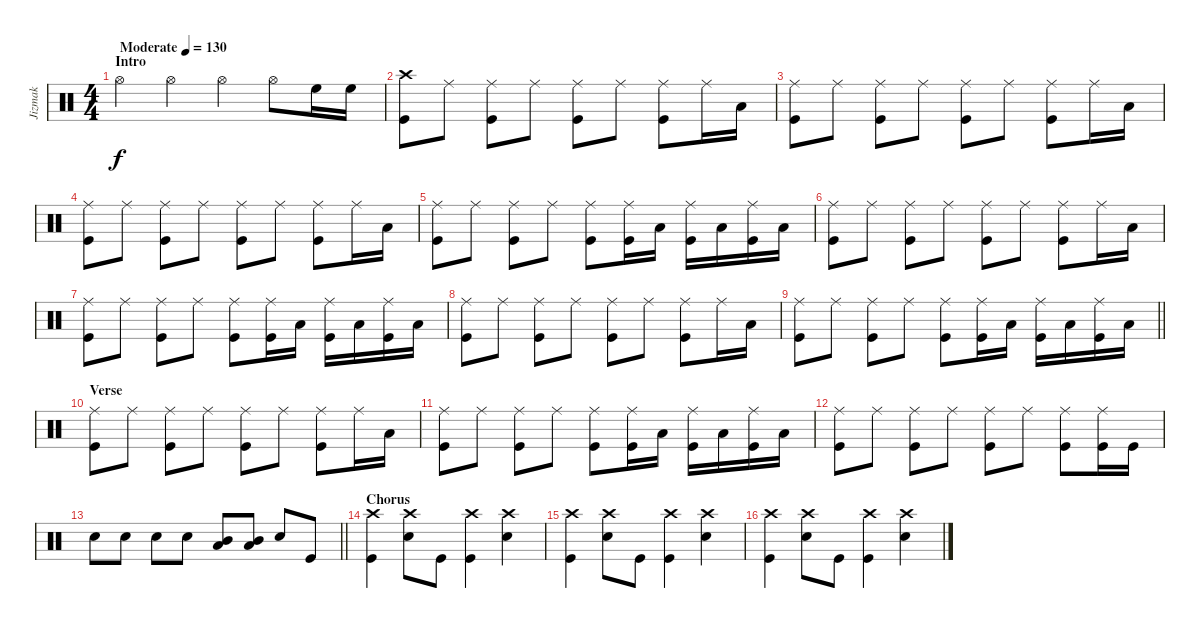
\track ("Jizmak" "Jizmak") {instrument percussion}
\staff {score}
\articulation defaults
\ts (4 4)
\section ("" "Intro")
\tempo (130 "Moderate")
\clef neutral
\ks c "Hi-Hat (open)".4{dy f} "Hi-Hat (open)".4 "Hi-Hat (open)".4 "Hi-Hat (open)".8 "High Floor Tom (hit)".16 "High Floor Tom (hit)".16
|
("Crash high (hit)" "Kick (hit)").8 "Ride (middle)".8 ("Ride (middle)" "Kick (hit)").8 "Ride (middle)".8 ("Ride (middle)" "Kick (hit)").8 "Ride (middle)".8 ("Ride (middle)" "Kick (hit)").8 "Ride (middle)".16 "Low Tom (hit)".16 |
("Ride (middle)" "Kick (hit)").8 "Ride (middle)".8 ("Ride (middle)" "Kick (hit)").8 "Ride (middle)".8 ("Ride (middle)" "Kick (hit)").8 "Ride (middle)".8 ("Ride (middle)" "Kick (hit)").8 "Ride (middle)".16 "Low Tom (hit)".16 |
("Ride (middle)" "Kick (hit)").8 "Ride (middle)".8 ("Ride (middle)" "Kick (hit)").8 "Ride (middle)".8 ("Ride (middle)" "Kick (hit)").8 "Ride (middle)".8 ("Ride (middle)" "Kick (hit)").8 "Ride (middle)".16 "Low Tom (hit)".16 |
("Ride (middle)" "Kick (hit)").8 "Ride (middle)".8 ("Ride (middle)" "Kick (hit)").8 "Ride (middle)".8 ("Ride (middle)" "Kick (hit)").8 ("Ride (middle)" "Kick (hit)").16 "Low Tom (hit)".16 ("Ride (middle)" "Kick (hit)").16 "Low Tom (hit)".16 ("Ride (middle)" "Kick (hit)").16 "Low Tom (hit)".16 |
("Ride (middle)" "Kick (hit)").8 "Ride (middle)".8 ("Ride (middle)" "Kick (hit)").8 "Ride (middle)".8 ("Ride (middle)" "Kick (hit)").8 "Ride (middle)".8 ("Ride (middle)" "Kick (hit)").8 "Ride (middle)".16 "Low Tom (hit)".16 |
("Ride (middle)" "Kick (hit)").8 "Ride (middle)".8 ("Ride (middle)" "Kick (hit)").8 "Ride (middle)".8 ("Ride (middle)" "Kick (hit)").8 ("Ride (middle)" "Kick (hit)").16 "Low Tom (hit)".16 ("Ride (middle)" "Kick (hit)").16 "Low Tom (hit)".16 ("Ride (middle)" "Kick (hit)").16 "Low Tom (hit)".16 |
("Ride (middle)" "Kick (hit)").8 "Ride (middle)".8 ("Ride (middle)" "Kick (hit)").8 "Ride (middle)".8 ("Ride (middle)" "Kick (hit)").8 "Ride (middle)".8 ("Ride (middle)" "Kick (hit)").8 "Ride (middle)".16 "Low Tom (hit)".16 |
\barLineRight lightlight
("Ride (middle)" "Kick (hit)").8 "Ride (middle)".8 ("Ride (middle)" "Kick (hit)").8 "Ride (middle)".8 ("Ride (middle)" "Kick (hit)").8 ("Ride (middle)" "Kick (hit)").16 "Low Tom (hit)".16 ("Ride (middle)" "Kick (hit)").16 "Low Tom (hit)".16 ("Ride (middle)" "Kick (hit)").16 "Low Tom (hit)".16 |
\section ("" "Verse")
("Ride (middle)" "Kick (hit)").8 "Ride (middle)".8 ("Ride (middle)" "Kick (hit)").8 "Ride (middle)".8 ("Ride (middle)" "Kick (hit)").8 "Ride (middle)".8 ("Ride (middle)" "Kick (hit)").8 "Ride (middle)".16 "Low Tom (hit)".16 |
("Ride (middle)" "Kick (hit)").8 "Ride (middle)".8 ("Ride (middle)" "Kick (hit)").8 "Ride (middle)".8 ("Ride (middle)" "Kick (hit)").8 ("Ride (middle)" "Kick (hit)").16 "Low Tom (hit)".16 ("Ride (middle)" "Kick (hit)").16 "Low Tom (hit)".16 ("Ride (middle)" "Kick (hit)").16 "Low Tom (hit)".16 |
("Ride (middle)" "Kick (hit)").8 "Ride (middle)".8 ("Ride (middle)" "Kick (hit)").8 "Ride (middle)".8 ("Ride (middle)" "Kick (hit)").8 "Ride (middle)".8 ("Ride (middle)" "Kick (hit)").8 ("Ride (middle)" "Kick (hit)").16 "Kick (hit)".16 |
\barLineRight lightlight "Snare (hit) 2".8 "Snare (hit) 2".8 "Snare (hit) 2".8 "Snare (hit) 2".8
("Mid Tom (hit)" "Low Tom (hit)").8 ("Mid Tom (hit)" "Low Tom (hit)").8 "Snare (hit) 2".8 "Kick (hit)".8 |
\section ("" "Chorus")
("Crash high (hit)" "Kick (hit)").4 ("Crash high (hit)" "Snare (hit) 2").8 "Kick (hit)".8 ("Crash high (hit)" "Kick (hit)").4 ("Crash high (hit)" "Snare (hit) 2").4 |
("Crash high (hit)" "Kick (hit)").4 ("Crash high (hit)" "Snare (hit) 2").8 "Kick (hit)".8 ("Crash high (hit)" "Kick (hit)").4 ("Crash high (hit)" "Snare (hit) 2").4 |
("Crash high (hit)" "Kick (hit)").4 ("Crash high (hit)" "Snare (hit) 2").8 "Kick (hit)".8 ("Crash high (hit)" "Kick (hit)").4 ("Crash high (hit)" "Snare (hit) 2").4
